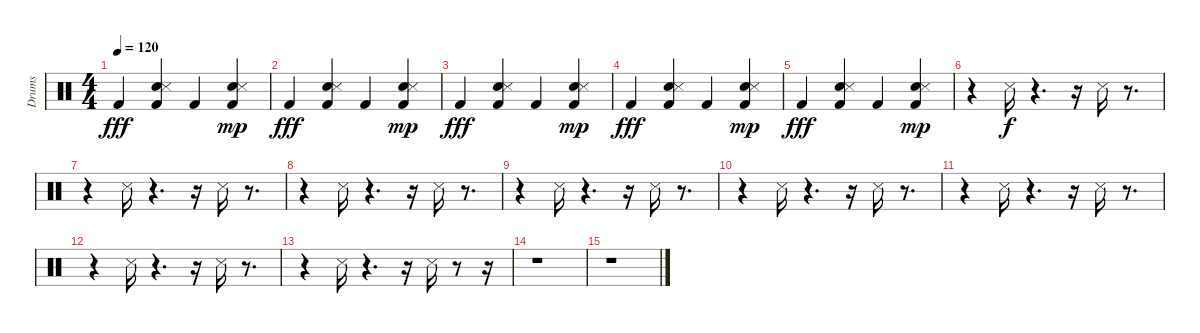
\track ("Drums" "Drums") {instrument percussion}
\staff {score}
\articulation defaults
\ts (4 4)
\tempo 120
\clef neutral
\ks c "Kick (hit) 2".4{dy fff}
("Hand Clap (hit)" "Kick (hit) 2" "Snare (side stick) 3").4 "Kick (hit) 2".4 ("Kick (hit) 2" "Hand Clap (hit)" "Snare (side stick) 3").4{dy mp} |
"Kick (hit) 2".4{dy fff} ("Hand Clap (hit)" "Kick (hit) 2" "Snare (side stick) 3").4 "Kick (hit) 2".4 ("Kick (hit) 2" "Hand Clap (hit)" "Snare (side stick) 3").4{dy mp} |
"Kick (hit) 2".4{dy fff} ("Hand Clap (hit)" "Kick (hit) 2" "Snare (side stick) 3").4 "Kick (hit) 2".4 ("Kick (hit) 2" "Hand Clap (hit)" "Snare (side stick) 3").4{dy mp} |
"Kick (hit) 2".4{dy fff} ("Hand Clap (hit)" "Kick (hit) 2" "Snare (side stick) 3").4 "Kick (hit) 2".4 ("Kick (hit) 2" "Hand Clap (hit)" "Snare (side stick) 3").4{dy mp} |
"Kick (hit) 2".4{dy fff} ("Hand Clap (hit)" "Kick (hit) 2" "Snare (side stick) 3").4 "Kick (hit) 2".4 ("Kick (hit) 2" "Hand Clap (hit)" "Snare (side stick) 3").4{dy mp} |
r.4 "Snare (side stick) 3".16{dy f} r.4{d} r.16 "Snare (side stick) 3".16 r.8{d} |
r.4 "Snare (side stick) 3".16 r.4{d} r.16 "Snare (side stick) 3".16 r.8{d} |
r.4 "Snare (side stick) 3".16 r.4{d} r.16 "Snare (side stick) 3".16 r.8{d} |
r.4 "Snare (side stick) 3".16 r.4{d} r.16 "Snare (side stick) 3".16 r.8{d} |
r.4 "Snare (side stick) 3".16 r.4{d} r.16 "Snare (side stick) 3".16 r.8{d} |
r.4 "Snare (side stick) 3".16 r.4{d} r.16 "Snare (side stick) 3".16 r.8{d} |
r.4 "Snare (side stick) 3".16 r.4{d} r.16 "Snare (side stick) 3".16 r.8{d} |
r.4 "Snare (side stick) 3".16 r.4{d} r.16 "Snare (side stick) 3".16 r.8 r.16 |
r.1 |
r.1
